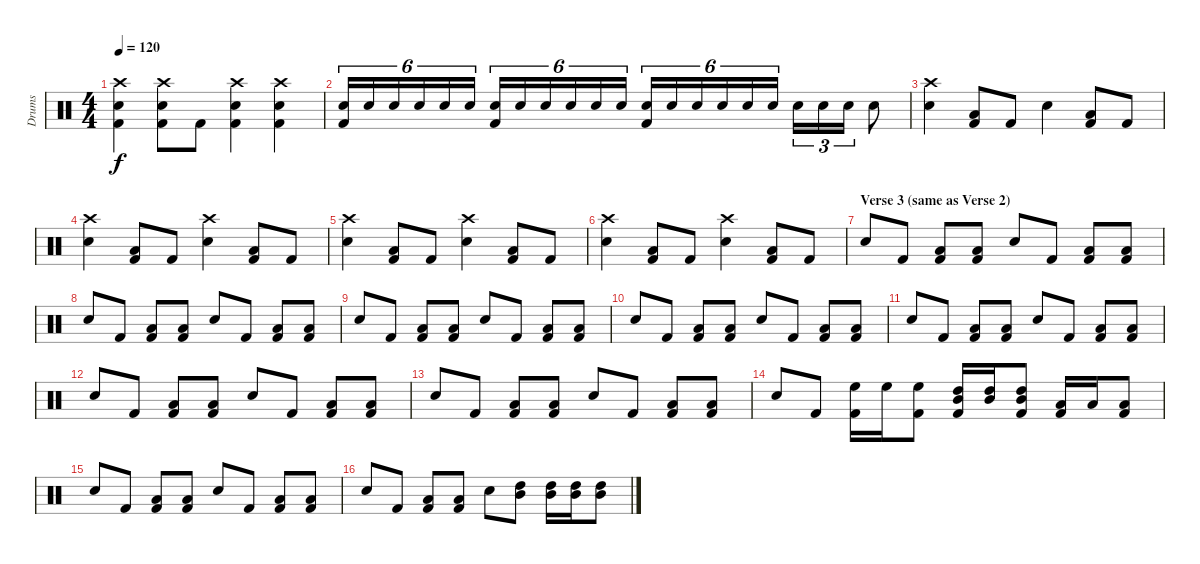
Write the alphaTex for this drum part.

\track ("Drums" "Drums") {instrument percussion}
\staff {score}
\articulation defaults
\ts (4 4)
\tempo 120
\clef neutral
\ks c
("Crash high (hit)" "Snare (hit) 2" "Kick (hit) 2").4{dy f} ("Crash high (hit)" "Snare (hit) 2" "Kick (hit) 2").8 "Kick (hit) 2".8 ("Crash high (hit)" "Snare (hit) 2" "Kick (hit) 2").4 ("Crash high (hit)" "Snare (hit) 2" "Kick (hit) 2").4 |
("Snare (hit) 2" "Kick (hit) 2").16{tu (6 4)} "Snare (hit) 2".16{tu (6 4)} "Snare (hit) 2".16{tu (6 4)} "Snare (hit) 2".16{tu (6 4)} "Snare (hit) 2".16{tu (6 4)} "Snare (hit) 2".16{tu (6 4)} ("Snare (hit) 2" "Kick (hit) 2").16{tu (6 4)} "Snare (hit) 2".16{tu (6 4)} "Snare (hit) 2".16{tu (6 4)} "Snare (hit) 2".16{tu (6 4)} "Snare (hit) 2".16{tu (6 4)} "Snare (hit) 2".16{tu (6 4)} ("Snare (hit) 2" "Kick (hit) 2").16{tu (6 4)} "Snare (hit) 2".16{tu (6 4)} "Snare (hit) 2".16{tu (6 4)} "Snare (hit) 2".16{tu (6 4)} "Snare (hit) 2".16{tu (6 4)} "Snare (hit) 2".16{tu (6 4)} "Snare (hit) 2".16{tu (3 2)} "Snare (hit) 2".16{tu (3 2)} "Snare (hit) 2".16{tu (3 2)} "Snare (hit) 2".8 |
("Crash high (hit)" "Snare (hit) 2").4 ("Low Tom (hit)" "Kick (hit) 2").8 "Kick (hit) 2".8 "Snare (hit) 2".4 ("Low Tom (hit)" "Kick (hit) 2").8 "Kick (hit) 2".8 |
("Crash high (hit)" "Snare (hit) 2").4 ("Low Tom (hit)" "Kick (hit) 2").8 "Kick (hit) 2".8 ("Crash high (hit)" "Snare (hit) 2").4 ("Low Tom (hit)" "Kick (hit) 2").8 "Kick (hit) 2".8 |
("Crash high (hit)" "Snare (hit) 2").4 ("Low Tom (hit)" "Kick (hit) 2").8 "Kick (hit) 2".8 ("Crash high (hit)" "Snare (hit) 2").4 ("Low Tom (hit)" "Kick (hit) 2").8 "Kick (hit) 2".8 |
("Crash high (hit)" "Snare (hit) 2").4 ("Low Tom (hit)" "Kick (hit) 2").8 "Kick (hit) 2".8 ("Crash high (hit)" "Snare (hit) 2").4 ("Low Tom (hit)" "Kick (hit) 2").8 "Kick (hit) 2".8 |
\section ("" "Verse 3 (same as Verse 2)")
"Snare (hit) 2".8 "Kick (hit) 2".8 ("Low Tom (hit)" "Kick (hit) 2").8 ("Low Tom (hit)" "Kick (hit) 2").8 "Snare (hit) 2".8 "Kick (hit) 2".8 ("Low Tom (hit)" "Kick (hit) 2").8 ("Low Tom (hit)" "Kick (hit) 2").8 |
"Snare (hit) 2".8 "Kick (hit) 2".8 ("Low Tom (hit)" "Kick (hit) 2").8 ("Low Tom (hit)" "Kick (hit) 2").8 "Snare (hit) 2".8 "Kick (hit) 2".8 ("Low Tom (hit)" "Kick (hit) 2").8 ("Low Tom (hit)" "Kick (hit) 2").8 |
"Snare (hit) 2".8 "Kick (hit) 2".8 ("Low Tom (hit)" "Kick (hit) 2").8 ("Low Tom (hit)" "Kick (hit) 2").8 "Snare (hit) 2".8 "Kick (hit) 2".8 ("Low Tom (hit)" "Kick (hit) 2").8 ("Low Tom (hit)" "Kick (hit) 2").8 |
"Snare (hit) 2".8 "Kick (hit) 2".8 ("Low Tom (hit)" "Kick (hit) 2").8 ("Low Tom (hit)" "Kick (hit) 2").8 "Snare (hit) 2".8 "Kick (hit) 2".8 ("Low Tom (hit)" "Kick (hit) 2").8 ("Low Tom (hit)" "Kick (hit) 2").8 |
"Snare (hit) 2".8 "Kick (hit) 2".8 ("Low Tom (hit)" "Kick (hit) 2").8 ("Low Tom (hit)" "Kick (hit) 2").8 "Snare (hit) 2".8 "Kick (hit) 2".8 ("Low Tom (hit)" "Kick (hit) 2").8 ("Low Tom (hit)" "Kick (hit) 2").8 |
"Snare (hit) 2".8 "Kick (hit) 2".8 ("Low Tom (hit)" "Kick (hit) 2").8 ("Low Tom (hit)" "Kick (hit) 2").8 "Snare (hit) 2".8 "Kick (hit) 2".8 ("Low Tom (hit)" "Kick (hit) 2").8 ("Low Tom (hit)" "Kick (hit) 2").8 |
"Snare (hit) 2".8 "Kick (hit) 2".8 ("Low Tom (hit)" "Kick (hit) 2").8 ("Low Tom (hit)" "Kick (hit) 2").8 "Snare (hit) 2".8 "Kick (hit) 2".8 ("Low Tom (hit)" "Kick (hit) 2").8 ("Low Tom (hit)" "Kick (hit) 2").8 |
"Snare (hit) 2".8 "Kick (hit) 2".8 ("High Floor Tom (hit)" "Kick (hit) 2").16 "High Floor Tom (hit)".16 ("High Floor Tom (hit)" "Kick (hit) 2").8 ("High Tom (hit)" "Mid Tom (hit)" "Kick (hit) 2").16 ("High Tom (hit)" "Mid Tom (hit)").16 ("High Tom (hit)" "Mid Tom (hit)" "Kick (hit) 2").8 ("Low Tom (hit)" "Kick (hit) 2").16 "Low Tom (hit)".16 ("Low Tom (hit)" "Kick (hit) 2").8 |
"Snare (hit) 2".8 "Kick (hit) 2".8 ("Low Tom (hit)" "Kick (hit) 2").8 ("Low Tom (hit)" "Kick (hit) 2").8 "Snare (hit) 2".8 "Kick (hit) 2".8 ("Low Tom (hit)" "Kick (hit) 2").8 ("Low Tom (hit)" "Kick (hit) 2").8 |
"Snare (hit) 2".8 "Kick (hit) 2".8 ("Low Tom (hit)" "Kick (hit) 2").8 ("Low Tom (hit)" "Kick (hit) 2").8 "Snare (hit) 2".8 ("High Tom (hit)" "Mid Tom (hit)").8 ("High Tom (hit)" "Mid Tom (hit)").16 ("High Tom (hit)" "Mid Tom (hit)").16 ("High Tom (hit)" "Mid Tom (hit)").8
